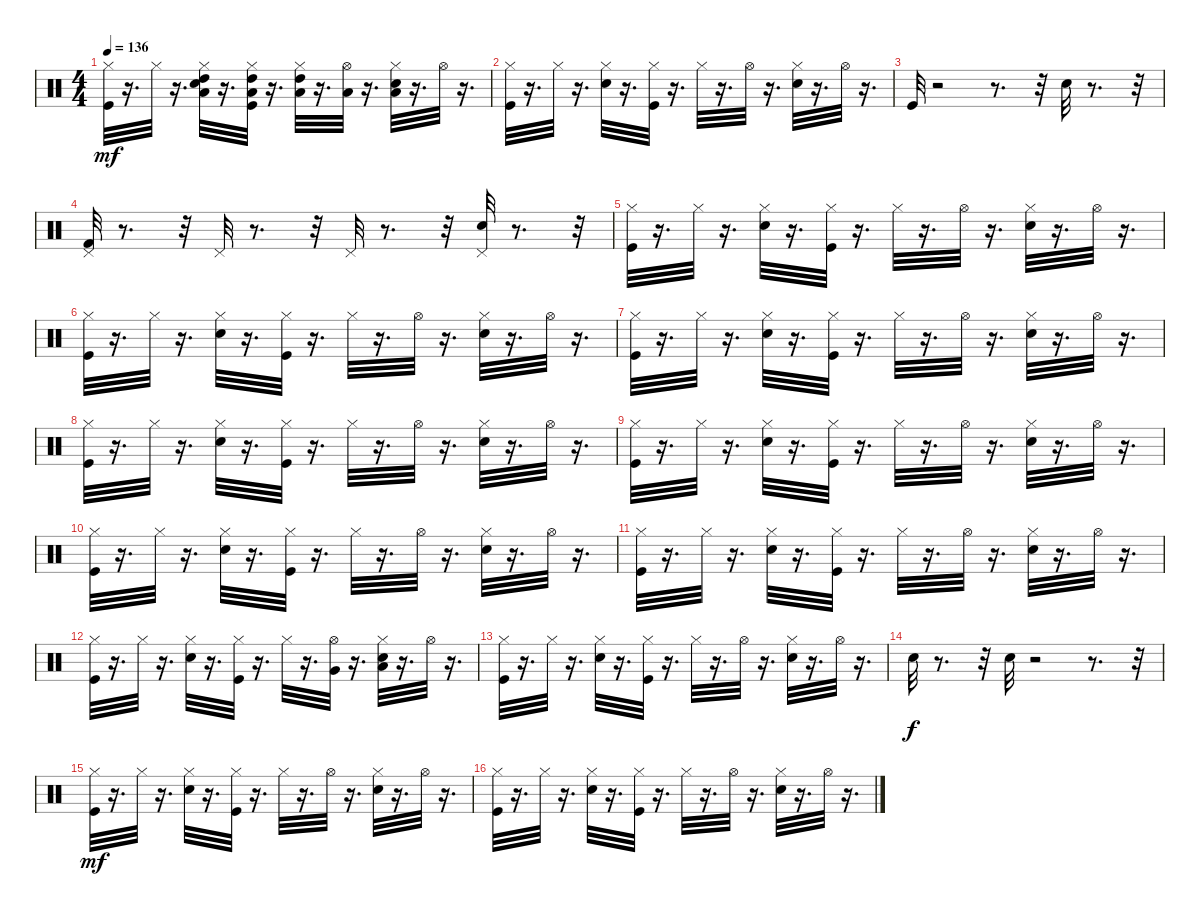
\track "" {instrument percussion}
\staff {score}
\articulation defaults
\ts (4 4)
\tempo 136
\clef neutral
\ks c
("Kick (hit)" "Hi-Hat (closed)").32{dy mf} r.16{d} "Hi-Hat (closed)".32 r.16{d} ("High Tom (hit)" "Low Floor Tom (hit)" "Snare (hit) 2" "Hi-Hat (closed)").32 r.16{d} ("High Tom (hit)" "Low Floor Tom (hit)" "Kick (hit)" "Hi-Hat (closed)").32 r.16{d} ("High Tom (hit)" "Low Floor Tom (hit)" "Hi-Hat (closed)").32 r.16{d} ("Low Floor Tom (hit)" "Hi-Hat (open)").32 r.16{d} ("Low Floor Tom (hit)" "Snare (hit) 2" "Hi-Hat (closed)").32 r.16{d} "Hi-Hat (open)".32 r.16{d} |
("Kick (hit)" "Hi-Hat (closed)").32 r.16{d} "Hi-Hat (closed)".32 r.16{d} ("Snare (hit) 2" "Hi-Hat (closed)").32 r.16{d} ("Kick (hit)" "Hi-Hat (closed)").32 r.16{d} "Hi-Hat (closed)".32 r.16{d} "Hi-Hat (open)".32 r.16{d} ("Snare (hit) 2" "Hi-Hat (closed)").32 r.16{d} "Hi-Hat (open)".32 r.16{d} |
"Kick (hit)".32 r.2 r.8{d} r.32 "Snare (hit) 2".32 r.8{d} r.32 |
("Pedal Hi-Hat (hit)" "Kick (hit) 2").32 r.8{d} r.32 "Pedal Hi-Hat (hit)".32 r.8{d} r.32 "Pedal Hi-Hat (hit)".32 r.8{d} r.32 ("Pedal Hi-Hat (hit)" "Snare (hit) 2").32 r.8{d} r.32 |
("Kick (hit)" "Hi-Hat (closed)").32 r.16{d} "Hi-Hat (closed)".32 r.16{d} ("Snare (hit) 2" "Hi-Hat (closed)").32 r.16{d} ("Kick (hit)" "Hi-Hat (closed)").32 r.16{d} "Hi-Hat (closed)".32 r.16{d} "Hi-Hat (open)".32 r.16{d} ("Snare (hit) 2" "Hi-Hat (closed)").32 r.16{d} "Hi-Hat (open)".32 r.16{d} |
("Kick (hit)" "Hi-Hat (closed)").32 r.16{d} "Hi-Hat (closed)".32 r.16{d} ("Snare (hit) 2" "Hi-Hat (closed)").32 r.16{d} ("Kick (hit)" "Hi-Hat (closed)").32 r.16{d} "Hi-Hat (closed)".32 r.16{d} "Hi-Hat (open)".32 r.16{d} ("Snare (hit) 2" "Hi-Hat (closed)").32 r.16{d} "Hi-Hat (open)".32 r.16{d} |
("Kick (hit)" "Hi-Hat (closed)").32 r.16{d} "Hi-Hat (closed)".32 r.16{d} ("Snare (hit) 2" "Hi-Hat (closed)").32 r.16{d} ("Kick (hit)" "Hi-Hat (closed)").32 r.16{d} "Hi-Hat (closed)".32 r.16{d} "Hi-Hat (open)".32 r.16{d} ("Snare (hit) 2" "Hi-Hat (closed)").32 r.16{d} "Hi-Hat (open)".32 r.16{d} |
("Kick (hit)" "Hi-Hat (closed)").32 r.16{d} "Hi-Hat (closed)".32 r.16{d} ("Snare (hit) 2" "Hi-Hat (closed)").32 r.16{d} ("Kick (hit)" "Hi-Hat (closed)").32 r.16{d} "Hi-Hat (closed)".32 r.16{d} "Hi-Hat (open)".32 r.16{d} ("Snare (hit) 2" "Hi-Hat (closed)").32 r.16{d} "Hi-Hat (open)".32 r.16{d} |
("Kick (hit)" "Hi-Hat (closed)").32 r.16{d} "Hi-Hat (closed)".32 r.16{d} ("Snare (hit) 2" "Hi-Hat (closed)").32 r.16{d} ("Kick (hit)" "Hi-Hat (closed)").32 r.16{d} "Hi-Hat (closed)".32 r.16{d} "Hi-Hat (open)".32 r.16{d} ("Snare (hit) 2" "Hi-Hat (closed)").32 r.16{d} "Hi-Hat (open)".32 r.16{d} |
("Kick (hit)" "Hi-Hat (closed)").32 r.16{d} "Hi-Hat (closed)".32 r.16{d} ("Snare (hit) 2" "Hi-Hat (closed)").32 r.16{d} ("Kick (hit)" "Hi-Hat (closed)").32 r.16{d} "Hi-Hat (closed)".32 r.16{d} "Hi-Hat (open)".32 r.16{d} ("Snare (hit) 2" "Hi-Hat (closed)").32 r.16{d} "Hi-Hat (open)".32 r.16{d} |
("Kick (hit)" "Hi-Hat (closed)").32 r.16{d} "Hi-Hat (closed)".32 r.16{d} ("Snare (hit) 2" "Hi-Hat (closed)").32 r.16{d} ("Kick (hit)" "Hi-Hat (closed)").32 r.16{d} "Hi-Hat (closed)".32 r.16{d} "Hi-Hat (open)".32 r.16{d} ("Snare (hit) 2" "Hi-Hat (closed)").32 r.16{d} "Hi-Hat (open)".32 r.16{d} |
("Kick (hit)" "Hi-Hat (closed)").32 r.16{d} "Hi-Hat (closed)".32 r.16{d} ("Snare (hit) 2" "Hi-Hat (closed)").32 r.16{d} ("Kick (hit)" "Hi-Hat (closed)").32 r.16{d} "Hi-Hat (closed)".32 r.16{d} ("Very Low Tom (hit)" "Hi-Hat (open)").32 r.16{d} ("Low Floor Tom (hit)" "Snare (hit) 2" "Hi-Hat (closed)").32 r.16{d} "Hi-Hat (open)".32 r.16{d} |
("Kick (hit)" "Hi-Hat (closed)").32 r.16{d} "Hi-Hat (closed)".32 r.16{d} ("Snare (hit) 2" "Hi-Hat (closed)").32 r.16{d} ("Kick (hit)" "Hi-Hat (closed)").32 r.16{d} "Hi-Hat (closed)".32 r.16{d} "Hi-Hat (open)".32 r.16{d} ("Snare (hit) 2" "Hi-Hat (closed)").32 r.16{d} "Hi-Hat (open)".32 r.16{d} |
"Snare (hit) 2".32{dy f} r.8{d} r.32 "Snare (hit) 2".32 r.2 r.8{d} r.32 |
("Kick (hit)" "Hi-Hat (closed)").32{dy mf} r.16{d} "Hi-Hat (closed)".32 r.16{d} ("Snare (hit) 2" "Hi-Hat (closed)").32 r.16{d} ("Kick (hit)" "Hi-Hat (closed)").32 r.16{d} "Hi-Hat (closed)".32 r.16{d} "Hi-Hat (open)".32 r.16{d} ("Snare (hit) 2" "Hi-Hat (closed)").32 r.16{d} "Hi-Hat (open)".32 r.16{d} |
("Kick (hit)" "Hi-Hat (closed)").32 r.16{d} "Hi-Hat (closed)".32 r.16{d} ("Snare (hit) 2" "Hi-Hat (closed)").32 r.16{d} ("Kick (hit)" "Hi-Hat (closed)").32 r.16{d} "Hi-Hat (closed)".32 r.16{d} "Hi-Hat (open)".32 r.16{d} ("Snare (hit) 2" "Hi-Hat (closed)").32 r.16{d} "Hi-Hat (open)".32 r.16{d}
